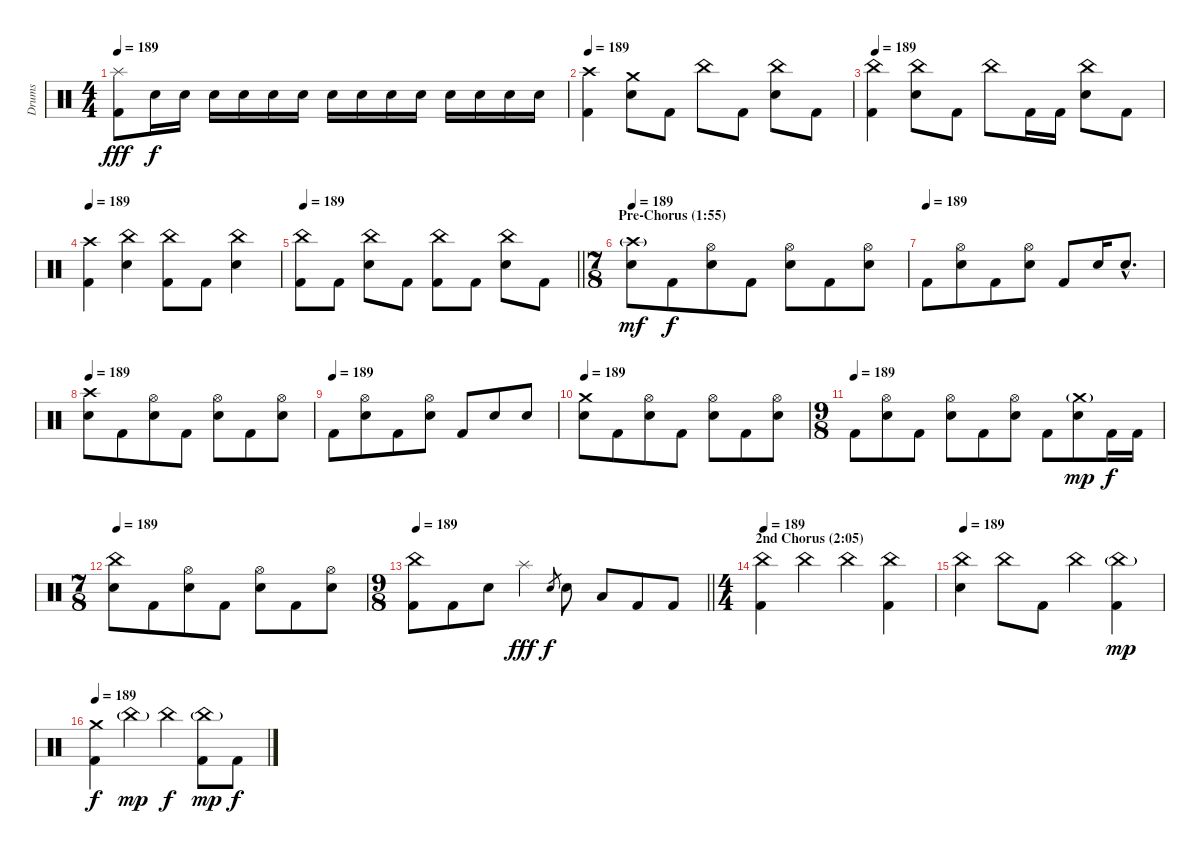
\track ("Drums" "Drums") {instrument percussion}
\staff {score}
\articulation defaults
\ts (4 4)
\tempo 189
\clef neutral
\ks c
("Splash (hit)" "Kick (hit) 2").8{dy fff} "Snare (hit) 2".16{dy f} "Snare (hit) 2".16 "Snare (hit) 2".16 "Snare (hit) 2".16 "Snare (hit) 2".16 "Snare (hit) 2".16 "Snare (hit) 2".16 "Snare (hit) 2".16 "Snare (hit) 2".16 "Snare (hit) 2".16 "Snare (hit) 2".16 "Snare (hit) 2".16 "Snare (hit) 2".16 "Snare (hit) 2".16 |
\tempo 189
("Crash high (hit)" "Kick (hit) 2").4 ("Crash medium (hit)" "Snare (hit) 2").8 "Kick (hit) 2".8 "China (hit)".8 "Kick (hit) 2".8 ("China (hit)" "Snare (hit) 2").8 "Kick (hit) 2".8 |
\tempo 189
("China (hit)" "Kick (hit) 2").4 ("China (hit)" "Snare (hit) 2").8 "Kick (hit) 2".8 "China (hit)".8 "Kick (hit) 2".16 "Kick (hit) 2".16 ("China (hit)" "Snare (hit) 2").8 "Kick (hit) 2".8 |
\tempo 189
("Crash high (hit)" "Kick (hit) 2").4 ("China (hit)" "Snare (hit) 2").4 ("China (hit)" "Kick (hit) 2").8 "Kick (hit) 2".8 ("China (hit)" "Snare (hit) 2").4 |
\tempo 189
\barLineRight lightlight
("China (hit)" "Kick (hit) 2").8 "Kick (hit) 2".8 ("China (hit)" "Snare (hit) 2").8 "Kick (hit) 2".8 ("China (hit)" "Kick (hit) 2").8 "Kick (hit) 2".8 ("China (hit)" "Snare (hit) 2").8 "Kick (hit) 2".8 |
\ts (7 8)
\section ("" "Pre-Chorus (1:55)")
\tempo 189
("Crash high (hit)"{g} "Snare (hit) 2").8{dy mf} "Kick (hit) 2".8{dy f} ("Hi-Hat (open)" "Snare (hit) 2").8 "Kick (hit) 2".8 ("Hi-Hat (open)" "Snare (hit) 2").8 "Kick (hit) 2".8 ("Hi-Hat (open)" "Snare (hit) 2").8 |
\tempo (189)
"Kick (hit) 2".8 ("Hi-Hat (open)" "Snare (hit) 2").8 "Kick (hit) 2".8 ("Hi-Hat (open)" "Snare (hit) 2").8 "Kick (hit) 2".8 "Snare (hit) 2".16 "Snare (hit) 2"{hac}.8{d} |
\tempo 189
("Crash high (hit)" "Snare (hit) 2").8 "Kick (hit) 2".8 ("Hi-Hat (open)" "Snare (hit) 2").8 "Kick (hit) 2".8 ("Hi-Hat (open)" "Snare (hit) 2").8 "Kick (hit) 2".8 ("Hi-Hat (open)" "Snare (hit) 2").8 |
\tempo (189)
"Kick (hit) 2".8 ("Hi-Hat (open)" "Snare (hit) 2").8 "Kick (hit) 2".8 ("Hi-Hat (open)" "Snare (hit) 2").8 "Kick (hit) 2".8 "Snare (hit) 2".8 "Snare (hit) 2".8 |
\tempo 189
("Crash medium (hit)" "Snare (hit) 2").8 "Kick (hit) 2".8 ("Hi-Hat (open)" "Snare (hit) 2").8 "Kick (hit) 2".8 ("Hi-Hat (open)" "Snare (hit) 2").8 "Kick (hit) 2".8 ("Hi-Hat (open)" "Snare (hit) 2").8 |
\ts (9 8)
\tempo (189)
"Kick (hit) 2".8 ("Hi-Hat (open)" "Snare (hit) 2").8 "Kick (hit) 2".8 ("Hi-Hat (open)" "Snare (hit) 2").8 "Kick (hit) 2".8 ("Hi-Hat (open)" "Snare (hit) 2").8 "Kick (hit) 2".8 ("Crash medium (hit)"{g} "Snare (hit) 2").8{dy mp} "Kick (hit) 2".16{dy f} "Kick (hit) 2".16 |
\ts (7 8)
\tempo 189
("China (hit)" "Snare (hit) 2").8 "Kick (hit) 2".8 ("Hi-Hat (open)" "Snare (hit) 2").8 "Kick (hit) 2".8 ("Hi-Hat (open)" "Snare (hit) 2").8 "Kick (hit) 2".8 ("Hi-Hat (open)" "Snare (hit) 2").8 |
\ts (9 8)
\tempo 189
\barLineRight lightlight
("China (hit)" "Kick (hit) 2").8 "Kick (hit) 2".8 "Snare (hit) 2".8 "Splash (hit)".4{dy fff} "Snare (hit) 2".8{gr dy f} "Snare (hit) 2".8 "Low Tom (hit)".8 "Kick (hit) 2".8 "Kick (hit) 2".8 |
\ts (4 4)
\section ("" "2nd Chorus (2:05)")
\tempo 189
("China (hit)" "Kick (hit) 2").4 "China (hit)".4 "China (hit)".4 ("China (hit)" "Kick (hit) 2").4 |
\tempo 189
("China (hit)" "Snare (hit) 2").4 "China (hit)".8 "Kick (hit) 2".8 "China (hit)".4 ("China (hit)"{g} "Kick (hit) 2").4{dy mp} |
\tempo 189
("Crash medium (hit)" "Kick (hit) 2").4{dy f} "China (hit)"{g}.4{dy mp} "China (hit)".4{dy f} ("China (hit)"{g} "Kick (hit) 2").8{dy mp} "Kick (hit) 2".8{dy f}
